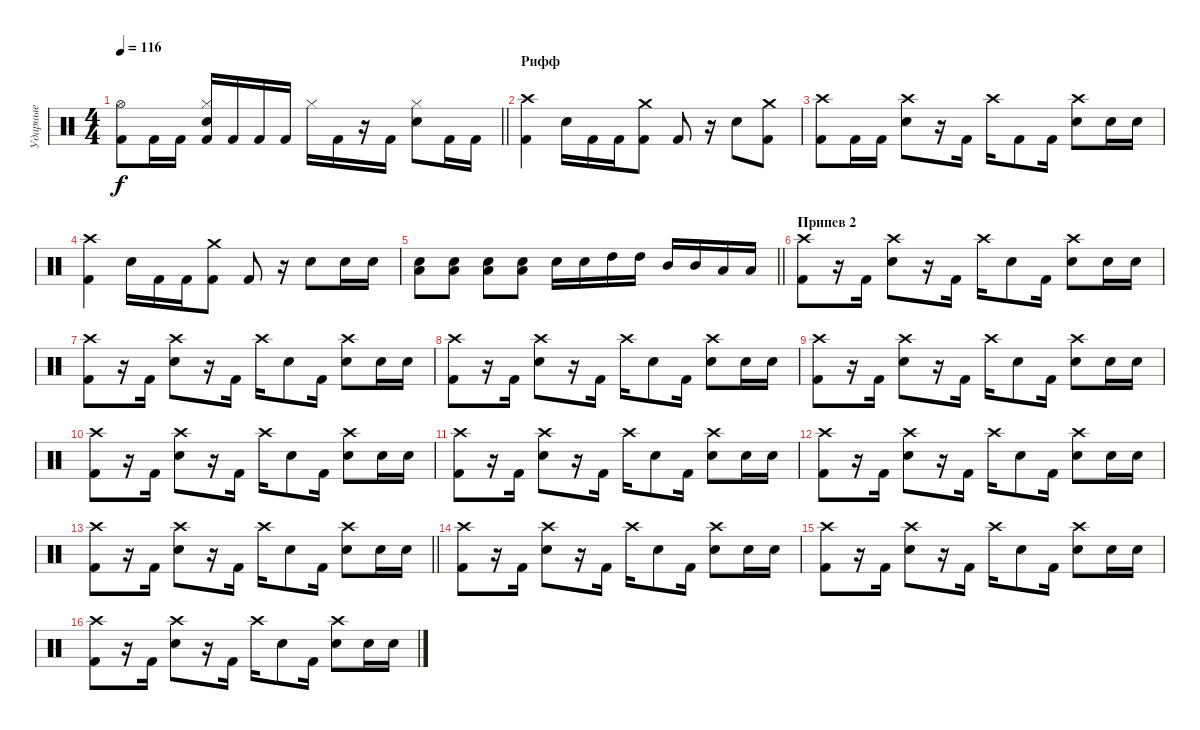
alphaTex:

\track ("Ударные" "Ударные") {instrument percussion}
\staff {score}
\articulation defaults
\ts (4 4)
\tempo 116
\clef neutral
\barLineRight lightlight
\ks c
("Hi-Hat (open)" "Kick (hit) 2").8{dy f} "Kick (hit) 2".16 "Kick (hit) 2".16 ("Hi-Hat (closed)" "Snare (hit) 2" "Kick (hit) 2").16 "Kick (hit) 2".16 "Kick (hit) 2".16 "Kick (hit) 2".16 "Hi-Hat (closed)".16 "Kick (hit) 2".16 r.16 "Kick (hit) 2".16 ("Hi-Hat (closed)" "Snare (hit) 2").8 "Kick (hit) 2".16 "Kick (hit) 2".16 |
\section ("" "Рифф")
("Crash high (hit)" "Kick (hit) 2").4 "Snare (hit) 2".16 "Kick (hit) 2".16 "Kick (hit) 2".16 ("Crash medium (hit)" "Kick (hit) 2").8 "Kick (hit) 2".8 r.16 "Snare (hit) 2".8 ("Crash medium (hit)" "Kick (hit) 2").8 |
("Crash high (hit)" "Kick (hit) 2").8 "Kick (hit) 2".16 "Kick (hit) 2".16 ("Crash high (hit)" "Snare (hit) 2").8 r.16 "Kick (hit) 2".16 "Crash high (hit)".16 "Kick (hit) 2".8 "Kick (hit) 2".16 ("Crash high (hit)" "Snare (hit) 2").8 "Snare (hit) 2".16 "Snare (hit) 2".16 |
("Crash high (hit)" "Kick (hit) 2").4 "Snare (hit) 2".16 "Kick (hit) 2".16 "Kick (hit) 2".16 ("Crash medium (hit)" "Kick (hit) 2").8 "Kick (hit) 2".8 r.16 "Snare (hit) 2".8 "Snare (hit) 2".16 "Snare (hit) 2".16 |
\barLineRight lightlight
("Low Tom (hit)" "Snare (hit) 2").8 ("Low Tom (hit)" "Snare (hit) 2").8 ("Low Tom (hit)" "Snare (hit) 2").8 ("Low Tom (hit)" "Snare (hit) 2").8 "Snare (hit) 2".16 "Snare (hit) 2".16 "High Tom (hit)".16 "High Tom (hit)".16 "Mid Tom (hit)".16 "Mid Tom (hit)".16 "Low Tom (hit)".16 "Low Tom (hit)".16 |
\section ("" "Припев 2")
("Crash high (hit)" "Kick (hit) 2").8 r.16 "Kick (hit) 2".16 ("Crash high (hit)" "Snare (hit) 2").8 r.16 "Kick (hit) 2".16 "Crash high (hit)".16 "Snare (hit) 2".8 "Kick (hit) 2".16 ("Crash high (hit)" "Snare (hit) 2").8 "Snare (hit) 2".16 "Snare (hit) 2".16 |
("Crash high (hit)" "Kick (hit) 2").8 r.16 "Kick (hit) 2".16 ("Crash high (hit)" "Snare (hit) 2").8 r.16 "Kick (hit) 2".16 "Crash high (hit)".16 "Snare (hit) 2".8 "Kick (hit) 2".16 ("Crash high (hit)" "Snare (hit) 2").8 "Snare (hit) 2".16 "Snare (hit) 2".16 |
("Crash high (hit)" "Kick (hit) 2").8 r.16 "Kick (hit) 2".16 ("Crash high (hit)" "Snare (hit) 2").8 r.16 "Kick (hit) 2".16 "Crash high (hit)".16 "Snare (hit) 2".8 "Kick (hit) 2".16 ("Crash high (hit)" "Snare (hit) 2").8 "Snare (hit) 2".16 "Snare (hit) 2".16 |
("Crash high (hit)" "Kick (hit) 2").8 r.16 "Kick (hit) 2".16 ("Crash high (hit)" "Snare (hit) 2").8 r.16 "Kick (hit) 2".16 "Crash high (hit)".16 "Snare (hit) 2".8 "Kick (hit) 2".16 ("Crash high (hit)" "Snare (hit) 2").8 "Snare (hit) 2".16 "Snare (hit) 2".16 |
("Crash high (hit)" "Kick (hit) 2").8 r.16 "Kick (hit) 2".16 ("Crash high (hit)" "Snare (hit) 2").8 r.16 "Kick (hit) 2".16 "Crash high (hit)".16 "Snare (hit) 2".8 "Kick (hit) 2".16 ("Crash high (hit)" "Snare (hit) 2").8 "Snare (hit) 2".16 "Snare (hit) 2".16 |
("Crash high (hit)" "Kick (hit) 2").8 r.16 "Kick (hit) 2".16 ("Crash high (hit)" "Snare (hit) 2").8 r.16 "Kick (hit) 2".16 "Crash high (hit)".16 "Snare (hit) 2".8 "Kick (hit) 2".16 ("Crash high (hit)" "Snare (hit) 2").8 "Snare (hit) 2".16 "Snare (hit) 2".16 |
("Crash high (hit)" "Kick (hit) 2").8 r.16 "Kick (hit) 2".16 ("Crash high (hit)" "Snare (hit) 2").8 r.16 "Kick (hit) 2".16 "Crash high (hit)".16 "Snare (hit) 2".8 "Kick (hit) 2".16 ("Crash high (hit)" "Snare (hit) 2").8 "Snare (hit) 2".16 "Snare (hit) 2".16 |
\barLineRight lightlight
("Crash high (hit)" "Kick (hit) 2").8 r.16 "Kick (hit) 2".16 ("Crash high (hit)" "Snare (hit) 2").8 r.16 "Kick (hit) 2".16 "Crash high (hit)".16 "Snare (hit) 2".8 "Kick (hit) 2".16 ("Crash high (hit)" "Snare (hit) 2").8 "Snare (hit) 2".16 "Snare (hit) 2".16 |
("Crash high (hit)" "Kick (hit) 2").8 r.16 "Kick (hit) 2".16 ("Crash high (hit)" "Snare (hit) 2").8 r.16 "Kick (hit) 2".16 "Crash high (hit)".16 "Snare (hit) 2".8 "Kick (hit) 2".16 ("Crash high (hit)" "Snare (hit) 2").8 "Snare (hit) 2".16 "Snare (hit) 2".16 |
("Crash high (hit)" "Kick (hit) 2").8 r.16 "Kick (hit) 2".16 ("Crash high (hit)" "Snare (hit) 2").8 r.16 "Kick (hit) 2".16 "Crash high (hit)".16 "Snare (hit) 2".8 "Kick (hit) 2".16 ("Crash high (hit)" "Snare (hit) 2").8 "Snare (hit) 2".16 "Snare (hit) 2".16 |
("Crash high (hit)" "Kick (hit) 2").8 r.16 "Kick (hit) 2".16 ("Crash high (hit)" "Snare (hit) 2").8 r.16 "Kick (hit) 2".16 "Crash high (hit)".16 "Snare (hit) 2".8 "Kick (hit) 2".16 ("Crash high (hit)" "Snare (hit) 2").8 "Snare (hit) 2".16 "Snare (hit) 2".16
